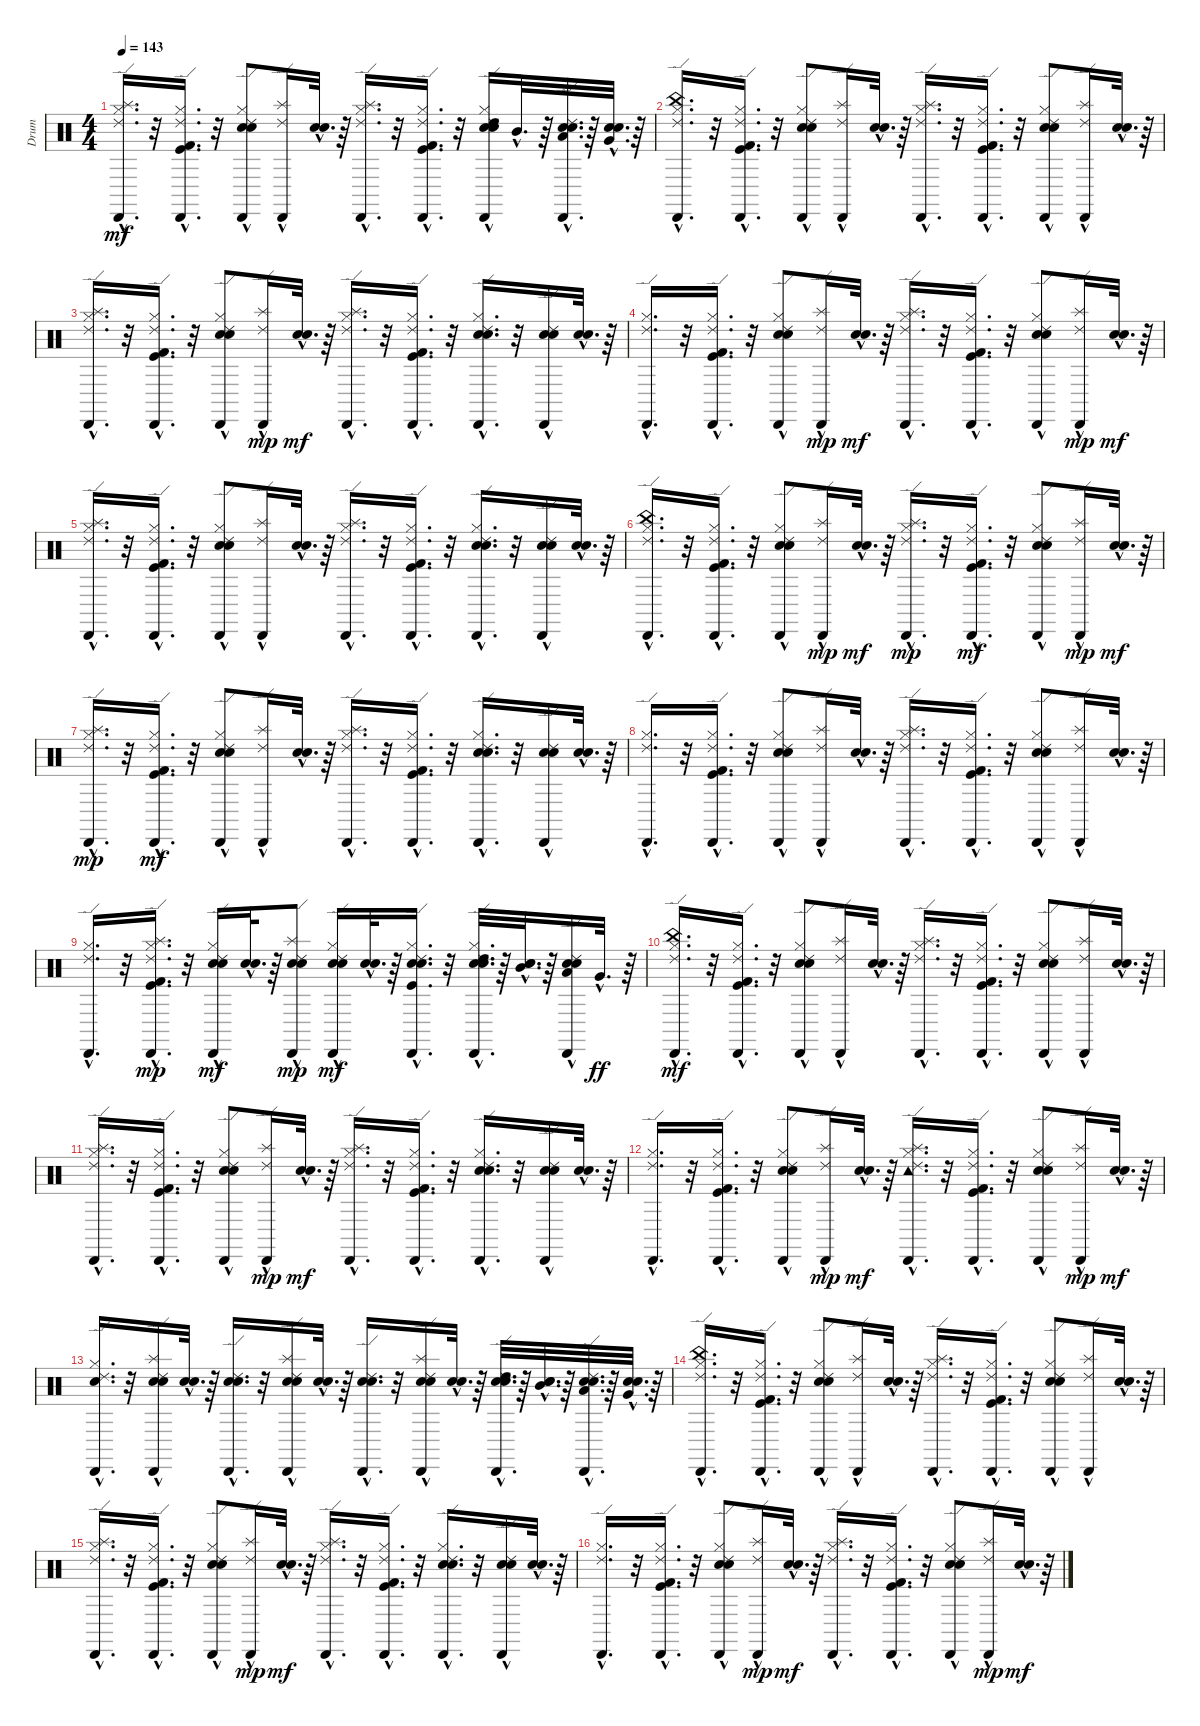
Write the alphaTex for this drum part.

\track ("Drum" "Drum") {instrument percussion}
\staff {score}
\articulation defaults
\ts (4 4)
\tempo 143
\clef neutral
\ks c
("Splash (hit)"{hac} "Cabasa (hit)"{hac} "Hi-Hat (closed)"{hac} "Ride (edge) 2"{hac}).16{d dy mf} r.32 ("Hi-Hat (closed)"{hac} "Cabasa (hit)"{hac} "Kick (hit)"{hac} "Kick (hit) 2"{hac} "Ride (edge) 2"{hac}).16{d} r.32 ("Snare (hit) 2" "Hi-Hat (closed)" "Electric Snare (hit)" "Cabasa (hit)"{hac} "Ride (edge) 2"{hac}).8 ("Splash (hit)"{hac} "Cabasa (hit)"{hac} "Ride (edge) 2"{hac}).16 ("Electric Snare (hit)"{hac} "Snare (hit) 2"{hac}).32{d} r.64 ("Splash (hit)"{hac} "Hi-Hat (closed)"{hac} "Cabasa (hit)"{hac} "Ride (edge) 2"{hac}).16{d} r.32 ("Hi-Hat (closed)"{hac} "Cabasa (hit)"{hac} "Kick (hit)"{hac} "Kick (hit) 2"{hac} "Ride (edge) 2"{hac}).16{d} r.32 ("Hi-Hat (closed)"{hac} "Snare (hit) 2"{hac} "Electric Snare (hit)"{hac} "High Tom (hit)"{hac} "Ride (edge) 2"{hac} "Cabasa (hit)"{hac}).16 "Mid Tom (hit)"{hac}.32{d} r.64 ("Snare (hit) 2"{hac} "Electric Snare (hit)"{hac} "Low Tom (hit)"{hac} "Ride (edge) 2"{hac} "Cabasa (hit)"{hac}).32{d} r.64 ("Electric Snare (hit)"{hac} "Snare (hit) 2"{hac} "Very Low Tom (hit)"{hac}).32{d} r.64 |
("China (hit)"{hac} "Ride (edge) 2"{hac} "Cabasa (hit)"{hac} "Hi-Hat (closed)"{hac}).16{d} r.32 ("Ride (edge) 2"{hac} "Kick (hit) 2"{hac} "Cabasa (hit)"{hac} "Kick (hit)"{hac} "Hi-Hat (closed)"{hac}).16{d} r.32 ("Ride (edge) 2"{hac} "Electric Snare (hit)" "Cabasa (hit)"{hac} "Snare (hit) 2" "Hi-Hat (closed)").8 ("Splash (hit)"{hac} "Ride (edge) 2"{hac} "Cabasa (hit)"{hac}).16 ("Electric Snare (hit)"{hac} "Snare (hit) 2"{hac}).32{d} r.64 ("Splash (hit)"{hac} "Ride (edge) 2"{hac} "Cabasa (hit)"{hac} "Hi-Hat (closed)"{hac}).16{d} r.32 ("Ride (edge) 2"{hac} "Kick (hit) 2"{hac} "Cabasa (hit)"{hac} "Kick (hit)"{hac} "Hi-Hat (closed)"{hac}).16{d} r.32 ("Ride (edge) 2"{hac} "Electric Snare (hit)" "Cabasa (hit)"{hac} "Snare (hit) 2" "Hi-Hat (closed)").8 ("Splash (hit)"{hac} "Ride (edge) 2"{hac} "Cabasa (hit)"{hac}).16 ("Electric Snare (hit)"{hac} "Snare (hit) 2"{hac}).32{d} r.64 |
("Splash (hit)"{hac} "Cabasa (hit)"{hac} "Ride (edge) 2"{hac} "Hi-Hat (closed)"{hac}).16{d} r.32 ("Cabasa (hit)"{hac} "Ride (edge) 2"{hac} "Kick (hit) 2"{hac} "Hi-Hat (closed)"{hac} "Kick (hit)"{hac}).16{d} r.32 ("Cabasa (hit)"{hac} "Ride (edge) 2"{hac} "Electric Snare (hit)" "Hi-Hat (closed)" "Snare (hit) 2").8 ("Cabasa (hit)"{hac} "Ride (edge) 2"{hac} "Splash (hit)"{hac}).16{dy mp} ("Electric Snare (hit)"{hac} "Snare (hit) 2"{hac}).32{d dy mf} r.64 ("Cabasa (hit)"{hac} "Ride (edge) 2"{hac} "Splash (hit)"{hac} "Hi-Hat (closed)"{hac}).16{d} r.32 ("Cabasa (hit)"{hac} "Ride (edge) 2"{hac} "Kick (hit) 2"{hac} "Hi-Hat (closed)"{hac} "Kick (hit)"{hac}).16{d} r.32 ("Cabasa (hit)"{hac} "Ride (edge) 2"{hac} "Electric Snare (hit)"{hac} "Hi-Hat (closed)"{hac} "Snare (hit) 2"{hac}).16{d} r.32 ("Cabasa (hit)"{hac} "Ride (edge) 2"{hac} "Electric Snare (hit)"{hac} "Snare (hit) 2"{hac}).16 ("Electric Snare (hit)"{hac} "Snare (hit) 2"{hac}).32{d} r.64 |
("Cabasa (hit)"{hac} "Ride (edge) 2"{hac} "Hi-Hat (closed)"{hac}).16{d} r.32 ("Cabasa (hit)"{hac} "Ride (edge) 2"{hac} "Kick (hit) 2"{hac} "Kick (hit)"{hac} "Hi-Hat (closed)"{hac}).16{d} r.32 ("Cabasa (hit)"{hac} "Ride (edge) 2"{hac} "Electric Snare (hit)" "Snare (hit) 2" "Hi-Hat (closed)").8 ("Cabasa (hit)"{hac} "Ride (edge) 2"{hac} "Splash (hit)"{hac}).16{dy mp} ("Electric Snare (hit)"{hac} "Snare (hit) 2"{hac}).32{d dy mf} r.64 ("Cabasa (hit)"{hac} "Ride (edge) 2"{hac} "Splash (hit)"{hac} "Hi-Hat (closed)"{hac}).16{d} r.32 ("Cabasa (hit)"{hac} "Ride (edge) 2"{hac} "Kick (hit) 2"{hac} "Kick (hit)"{hac} "Hi-Hat (closed)"{hac}).16{d} r.32 ("Cabasa (hit)"{hac} "Ride (edge) 2"{hac} "Electric Snare (hit)" "Snare (hit) 2" "Hi-Hat (closed)").8 ("Cabasa (hit)"{hac} "Ride (edge) 2"{hac} "Splash (hit)"{hac}).16{dy mp} ("Electric Snare (hit)"{hac} "Snare (hit) 2"{hac}).32{d dy mf} r.64 |
("Ride (edge) 2"{hac} "Cabasa (hit)"{hac} "Splash (hit)"{hac} "Hi-Hat (closed)"{hac}).16{d} r.32 ("Ride (edge) 2"{hac} "Cabasa (hit)"{hac} "Kick (hit) 2"{hac} "Kick (hit)"{hac} "Hi-Hat (closed)"{hac}).16{d} r.32 ("Ride (edge) 2"{hac} "Cabasa (hit)"{hac} "Electric Snare (hit)" "Snare (hit) 2" "Hi-Hat (closed)").8 ("Splash (hit)"{hac} "Ride (edge) 2"{hac} "Cabasa (hit)"{hac}).16 ("Electric Snare (hit)"{hac} "Snare (hit) 2"{hac}).32{d} r.64 ("Splash (hit)"{hac} "Ride (edge) 2"{hac} "Cabasa (hit)"{hac} "Hi-Hat (closed)"{hac}).16{d} r.32 ("Ride (edge) 2"{hac} "Cabasa (hit)"{hac} "Kick (hit) 2"{hac} "Kick (hit)"{hac} "Hi-Hat (closed)"{hac}).16{d} r.32 ("Ride (edge) 2"{hac} "Cabasa (hit)"{hac} "Electric Snare (hit)"{hac} "Snare (hit) 2"{hac} "Hi-Hat (closed)"{hac}).16{d} r.32 ("Ride (edge) 2"{hac} "Cabasa (hit)"{hac} "Electric Snare (hit)"{hac} "Snare (hit) 2"{hac}).16 ("Electric Snare (hit)"{hac} "Snare (hit) 2"{hac}).32{d} r.64 |
("Hi-Hat (closed)"{hac} "Cabasa (hit)"{hac} "Ride (edge) 2"{hac} "China (hit)"{hac}).16{d} r.32 ("Hi-Hat (closed)"{hac} "Kick (hit)"{hac} "Cabasa (hit)"{hac} "Kick (hit) 2"{hac} "Ride (edge) 2"{hac}).16{d} r.32 ("Hi-Hat (closed)" "Snare (hit) 2" "Cabasa (hit)"{hac} "Electric Snare (hit)" "Ride (edge) 2"{hac}).8 ("Cabasa (hit)"{hac} "Ride (edge) 2"{hac} "Splash (hit)"{hac}).16{dy mp} ("Snare (hit) 2"{hac} "Electric Snare (hit)"{hac}).32{d dy mf} r.64 ("Hi-Hat (closed)"{hac} "Cabasa (hit)"{hac} "Ride (edge) 2"{hac} "Splash (hit)"{hac}).16{d dy mp} r.32 ("Hi-Hat (closed)"{hac} "Kick (hit)"{hac} "Cabasa (hit)"{hac} "Kick (hit) 2"{hac} "Ride (edge) 2"{hac}).16{d dy mf} r.32 ("Hi-Hat (closed)" "Snare (hit) 2" "Cabasa (hit)"{hac} "Electric Snare (hit)" "Ride (edge) 2"{hac}).8 ("Cabasa (hit)"{hac} "Ride (edge) 2"{hac} "Splash (hit)"{hac}).16{dy mp} ("Snare (hit) 2"{hac} "Electric Snare (hit)"{hac}).32{d dy mf} r.64 |
("Hi-Hat (closed)"{hac} "Ride (edge) 2"{hac} "Cabasa (hit)"{hac} "Splash (hit)"{hac}).16{d dy mp} r.32 ("Kick (hit)"{hac} "Hi-Hat (closed)"{hac} "Kick (hit) 2"{hac} "Ride (edge) 2"{hac} "Cabasa (hit)"{hac}).16{d dy mf} r.32 ("Snare (hit) 2" "Hi-Hat (closed)" "Electric Snare (hit)" "Ride (edge) 2"{hac} "Cabasa (hit)"{hac}).8 ("Splash (hit)"{hac} "Ride (edge) 2"{hac} "Cabasa (hit)"{hac}).16 ("Snare (hit) 2"{hac} "Electric Snare (hit)"{hac}).32{d} r.64 ("Hi-Hat (closed)"{hac} "Splash (hit)"{hac} "Ride (edge) 2"{hac} "Cabasa (hit)"{hac}).16{d} r.32 ("Kick (hit)"{hac} "Hi-Hat (closed)"{hac} "Kick (hit) 2"{hac} "Ride (edge) 2"{hac} "Cabasa (hit)"{hac}).16{d} r.32 ("Snare (hit) 2"{hac} "Hi-Hat (closed)"{hac} "Electric Snare (hit)"{hac} "Ride (edge) 2"{hac} "Cabasa (hit)"{hac}).16{d} r.32 ("Snare (hit) 2"{hac} "Electric Snare (hit)"{hac} "Ride (edge) 2"{hac} "Cabasa (hit)"{hac}).16 ("Snare (hit) 2"{hac} "Electric Snare (hit)"{hac}).32{d} r.64 |
("Hi-Hat (closed)"{hac} "Ride (edge) 2"{hac} "Cabasa (hit)"{hac}).16{d} r.32 ("Hi-Hat (closed)"{hac} "Kick (hit)"{hac} "Kick (hit) 2"{hac} "Ride (edge) 2"{hac} "Cabasa (hit)"{hac}).16{d} r.32 ("Hi-Hat (closed)" "Snare (hit) 2" "Electric Snare (hit)" "Ride (edge) 2"{hac} "Cabasa (hit)"{hac}).8 ("Splash (hit)"{hac} "Ride (edge) 2"{hac} "Cabasa (hit)"{hac}).16 ("Snare (hit) 2"{hac} "Electric Snare (hit)"{hac}).32{d} r.64 ("Hi-Hat (closed)"{hac} "Splash (hit)"{hac} "Ride (edge) 2"{hac} "Cabasa (hit)"{hac}).16{d} r.32 ("Hi-Hat (closed)"{hac} "Kick (hit)"{hac} "Kick (hit) 2"{hac} "Ride (edge) 2"{hac} "Cabasa (hit)"{hac}).16{d} r.32 ("Hi-Hat (closed)" "Snare (hit) 2" "Electric Snare (hit)" "Ride (edge) 2"{hac} "Cabasa (hit)"{hac}).8 ("Splash (hit)"{hac} "Ride (edge) 2"{hac} "Cabasa (hit)"{hac}).16 ("Snare (hit) 2"{hac} "Electric Snare (hit)"{hac}).32{d} r.64 |
("Cabasa (hit)"{hac} "Hi-Hat (closed)"{hac} "Ride (edge) 2"{hac}).16{d} r.32 ("Cabasa (hit)"{hac} "Hi-Hat (closed)"{hac} "Kick (hit)"{hac} "Kick (hit) 2"{hac} "Ride (edge) 2"{hac} "Splash (hit)"{hac}).16{d dy mp} r.32 ("Cabasa (hit)"{hac} "Snare (hit) 2"{hac} "Hi-Hat (closed)"{hac} "Electric Snare (hit)"{hac} "Ride (edge) 2"{hac}).16{dy mf} ("Snare (hit) 2"{hac} "Electric Snare (hit)"{hac}).32{d} r.64 ("Cabasa (hit)"{hac} "Snare (hit) 2"{hac} "Electric Snare (hit)"{hac} "Ride (edge) 2"{hac} "Splash (hit)").8{dy mp} ("Cabasa (hit)"{hac} "Snare (hit) 2"{hac} "Hi-Hat (closed)"{hac} "Electric Snare (hit)"{hac} "Ride (edge) 2"{hac}).16{dy mf} ("Snare (hit) 2"{hac} "Electric Snare (hit)"{hac}).32{d} r.64 ("Cabasa (hit)"{hac} "Snare (hit) 2"{hac} "Hi-Hat (closed)"{hac} "Kick (hit)"{hac} "Electric Snare (hit)"{hac} "Ride (edge) 2"{hac}).16{d} r.32 ("High Tom (hit)"{hac} "Cabasa (hit)"{hac} "Snare (hit) 2"{hac} "Hi-Hat (closed)"{hac} "Electric Snare (hit)"{hac} "Ride (edge) 2"{hac}).32{d} r.64 ("Mid Tom (hit)"{hac} "Snare (hit) 2"{hac} "Electric Snare (hit)"{hac}).32{d} r.64 ("Low Tom (hit)"{hac} "Cabasa (hit)"{hac} "Snare (hit) 2"{hac} "Electric Snare (hit)"{hac} "Ride (edge) 2"{hac}).16 "Very Low Tom (hit)"{hac}.32{d dy ff} r.64 |
("China (hit)"{hac} "Ride (edge) 2"{hac} "Cabasa (hit)"{hac} "Hi-Hat (closed)"{hac}).16{d dy mf} r.32 ("Ride (edge) 2"{hac} "Kick (hit) 2"{hac} "Cabasa (hit)"{hac} "Kick (hit)"{hac} "Hi-Hat (closed)"{hac}).16{d} r.32 ("Ride (edge) 2"{hac} "Electric Snare (hit)" "Cabasa (hit)"{hac} "Snare (hit) 2" "Hi-Hat (closed)").8 ("Splash (hit)"{hac} "Ride (edge) 2"{hac} "Cabasa (hit)"{hac}).16 ("Electric Snare (hit)"{hac} "Snare (hit) 2"{hac}).32{d} r.64 ("Splash (hit)"{hac} "Ride (edge) 2"{hac} "Cabasa (hit)"{hac} "Hi-Hat (closed)"{hac}).16{d} r.32 ("Ride (edge) 2"{hac} "Kick (hit) 2"{hac} "Cabasa (hit)"{hac} "Kick (hit)"{hac} "Hi-Hat (closed)"{hac}).16{d} r.32 ("Ride (edge) 2"{hac} "Electric Snare (hit)" "Cabasa (hit)"{hac} "Snare (hit) 2" "Hi-Hat (closed)").8 ("Splash (hit)"{hac} "Ride (edge) 2"{hac} "Cabasa (hit)"{hac}).16 ("Electric Snare (hit)"{hac} "Snare (hit) 2"{hac}).32{d} r.64 |
("Splash (hit)"{hac} "Cabasa (hit)"{hac} "Ride (edge) 2"{hac} "Hi-Hat (closed)"{hac}).16{d} r.32 ("Cabasa (hit)"{hac} "Ride (edge) 2"{hac} "Kick (hit) 2"{hac} "Hi-Hat (closed)"{hac} "Kick (hit)"{hac}).16{d} r.32 ("Cabasa (hit)"{hac} "Ride (edge) 2"{hac} "Electric Snare (hit)" "Hi-Hat (closed)" "Snare (hit) 2").8 ("Cabasa (hit)"{hac} "Ride (edge) 2"{hac} "Splash (hit)"{hac}).16{dy mp} ("Electric Snare (hit)"{hac} "Snare (hit) 2"{hac}).32{d dy mf} r.64 ("Cabasa (hit)"{hac} "Ride (edge) 2"{hac} "Splash (hit)"{hac} "Hi-Hat (closed)"{hac}).16{d} r.32 ("Cabasa (hit)"{hac} "Ride (edge) 2"{hac} "Kick (hit) 2"{hac} "Hi-Hat (closed)"{hac} "Kick (hit)"{hac}).16{d} r.32 ("Cabasa (hit)"{hac} "Ride (edge) 2"{hac} "Electric Snare (hit)"{hac} "Hi-Hat (closed)"{hac} "Snare (hit) 2"{hac}).16{d} r.32 ("Cabasa (hit)"{hac} "Ride (edge) 2"{hac} "Electric Snare (hit)"{hac} "Snare (hit) 2"{hac}).16 ("Electric Snare (hit)"{hac} "Snare (hit) 2"{hac}).32{d} r.64 |
("Cabasa (hit)"{hac} "Ride (edge) 2"{hac} "Hi-Hat (closed)"{hac}).16{d} r.32 ("Cabasa (hit)"{hac} "Ride (edge) 2"{hac} "Kick (hit) 2"{hac} "Kick (hit)"{hac} "Hi-Hat (closed)"{hac}).16{d} r.32 ("Cabasa (hit)"{hac} "Ride (edge) 2"{hac} "Electric Snare (hit)" "Snare (hit) 2" "Hi-Hat (closed)").8 ("Cabasa (hit)"{hac} "Ride (edge) 2"{hac} "Splash (hit)"{hac}).16{dy mp} ("Electric Snare (hit)"{hac} "Snare (hit) 2"{hac}).32{d dy mf} r.64 ("Cabasa (hit)"{hac} "Ride (edge) 2"{hac} "Tambourine (hit)"{hac} "Splash (hit)"{hac} "Hi-Hat (closed)"{hac}).16{d} r.32 ("Cabasa (hit)"{hac} "Ride (edge) 2"{hac} "Kick (hit) 2"{hac} "Kick (hit)"{hac} "Hi-Hat (closed)"{hac}).16{d} r.32 ("Cabasa (hit)"{hac} "Ride (edge) 2"{hac} "Hi-Hat (closed)" "Snare (hit) 2" "Electric Snare (hit)").8 ("Cabasa (hit)"{hac} "Ride (edge) 2"{hac} "Splash (hit)"{hac}).16{dy mp} ("Snare (hit) 2"{hac} "Electric Snare (hit)"{hac}).32{d dy mf} r.64 |
("Ride (edge) 2"{hac} "Cabasa (hit)"{hac} "Hi-Hat (closed)"{hac} "Snare (hit) 2"{hac}).16{d} r.32 ("Splash (hit)"{hac} "Ride (edge) 2"{hac} "Cabasa (hit)"{hac} "Snare (hit) 2"{hac} "Electric Snare (hit)"{hac}).16 ("Snare (hit) 2"{hac} "Electric Snare (hit)"{hac}).32{d} r.64 ("Ride (edge) 2"{hac} "Cabasa (hit)"{hac} "Snare (hit) 2"{hac} "Electric Snare (hit)"{hac}).16{d} r.32 ("Splash (hit)"{hac} "Ride (edge) 2"{hac} "Cabasa (hit)"{hac} "Snare (hit) 2"{hac} "Electric Snare (hit)"{hac}).16 ("Snare (hit) 2"{hac} "Electric Snare (hit)"{hac}).32{d} r.64 ("Ride (edge) 2"{hac} "Cabasa (hit)"{hac} "Snare (hit) 2"{hac} "Electric Snare (hit)"{hac}).16{d} r.32 ("Splash (hit)"{hac} "Ride (edge) 2"{hac} "Cabasa (hit)"{hac} "Snare (hit) 2"{hac} "Electric Snare (hit)"{hac}).16 ("Snare (hit) 2"{hac} "Electric Snare (hit)"{hac}).32{d} r.64 ("Ride (edge) 2"{hac} "Cabasa (hit)"{hac} "High Tom (hit)"{hac} "Electric Snare (hit)"{hac} "Snare (hit) 2"{hac}).32{d} r.64 ("Mid Tom (hit)"{hac} "Electric Snare (hit)"{hac} "Snare (hit) 2"{hac}).32{d} r.64 ("Ride (edge) 2"{hac} "Cabasa (hit)"{hac} "Low Tom (hit)"{hac} "Electric Snare (hit)"{hac} "Snare (hit) 2"{hac}).32{d} r.64 ("Very Low Tom (hit)"{hac} "Electric Snare (hit)"{hac} "Snare (hit) 2"{hac}).32{d} r.64 |
("China (hit)"{hac} "Ride (edge) 2"{hac} "Cabasa (hit)"{hac} "Hi-Hat (closed)"{hac}).16{d} r.32 ("Ride (edge) 2"{hac} "Kick (hit) 2"{hac} "Cabasa (hit)"{hac} "Kick (hit)"{hac} "Hi-Hat (closed)"{hac}).16{d} r.32 ("Ride (edge) 2"{hac} "Electric Snare (hit)" "Cabasa (hit)"{hac} "Snare (hit) 2" "Hi-Hat (closed)").8 ("Splash (hit)"{hac} "Ride (edge) 2"{hac} "Cabasa (hit)"{hac}).16 ("Electric Snare (hit)"{hac} "Snare (hit) 2"{hac}).32{d} r.64 ("Splash (hit)"{hac} "Ride (edge) 2"{hac} "Cabasa (hit)"{hac} "Hi-Hat (closed)"{hac}).16{d} r.32 ("Ride (edge) 2"{hac} "Kick (hit) 2"{hac} "Cabasa (hit)"{hac} "Kick (hit)"{hac} "Hi-Hat (closed)"{hac}).16{d} r.32 ("Ride (edge) 2"{hac} "Electric Snare (hit)" "Cabasa (hit)"{hac} "Snare (hit) 2" "Hi-Hat (closed)").8 ("Splash (hit)"{hac} "Ride (edge) 2"{hac} "Cabasa (hit)"{hac}).16 ("Electric Snare (hit)"{hac} "Snare (hit) 2"{hac}).32{d} r.64 |
("Splash (hit)"{hac} "Cabasa (hit)"{hac} "Ride (edge) 2"{hac} "Hi-Hat (closed)"{hac}).16{d} r.32 ("Cabasa (hit)"{hac} "Ride (edge) 2"{hac} "Kick (hit) 2"{hac} "Hi-Hat (closed)"{hac} "Kick (hit)"{hac}).16{d} r.32 ("Cabasa (hit)"{hac} "Ride (edge) 2"{hac} "Electric Snare (hit)" "Hi-Hat (closed)" "Snare (hit) 2").8 ("Cabasa (hit)"{hac} "Ride (edge) 2"{hac} "Splash (hit)"{hac}).16{dy mp} ("Electric Snare (hit)"{hac} "Snare (hit) 2"{hac}).32{d dy mf} r.64 ("Cabasa (hit)"{hac} "Ride (edge) 2"{hac} "Splash (hit)"{hac} "Hi-Hat (closed)"{hac}).16{d} r.32 ("Cabasa (hit)"{hac} "Ride (edge) 2"{hac} "Kick (hit) 2"{hac} "Hi-Hat (closed)"{hac} "Kick (hit)"{hac}).16{d} r.32 ("Cabasa (hit)"{hac} "Ride (edge) 2"{hac} "Electric Snare (hit)"{hac} "Hi-Hat (closed)"{hac} "Snare (hit) 2"{hac}).16{d} r.32 ("Cabasa (hit)"{hac} "Ride (edge) 2"{hac} "Electric Snare (hit)"{hac} "Snare (hit) 2"{hac}).16 ("Electric Snare (hit)"{hac} "Snare (hit) 2"{hac}).32{d} r.64 |
("Cabasa (hit)"{hac} "Ride (edge) 2"{hac} "Hi-Hat (closed)"{hac}).16{d} r.32 ("Cabasa (hit)"{hac} "Ride (edge) 2"{hac} "Kick (hit) 2"{hac} "Kick (hit)"{hac} "Hi-Hat (closed)"{hac}).16{d} r.32 ("Cabasa (hit)"{hac} "Ride (edge) 2"{hac} "Electric Snare (hit)" "Snare (hit) 2" "Hi-Hat (closed)").8 ("Cabasa (hit)"{hac} "Ride (edge) 2"{hac} "Splash (hit)"{hac}).16{dy mp} ("Electric Snare (hit)"{hac} "Snare (hit) 2"{hac}).32{d dy mf} r.64 ("Cabasa (hit)"{hac} "Ride (edge) 2"{hac} "Splash (hit)"{hac} "Hi-Hat (closed)"{hac}).16{d} r.32 ("Cabasa (hit)"{hac} "Ride (edge) 2"{hac} "Kick (hit) 2"{hac} "Kick (hit)"{hac} "Hi-Hat (closed)"{hac}).16{d} r.32 ("Cabasa (hit)"{hac} "Ride (edge) 2"{hac} "Electric Snare (hit)" "Snare (hit) 2" "Hi-Hat (closed)").8 ("Cabasa (hit)"{hac} "Ride (edge) 2"{hac} "Splash (hit)"{hac}).16{dy mp} ("Electric Snare (hit)"{hac} "Snare (hit) 2"{hac}).32{d dy mf} r.64
